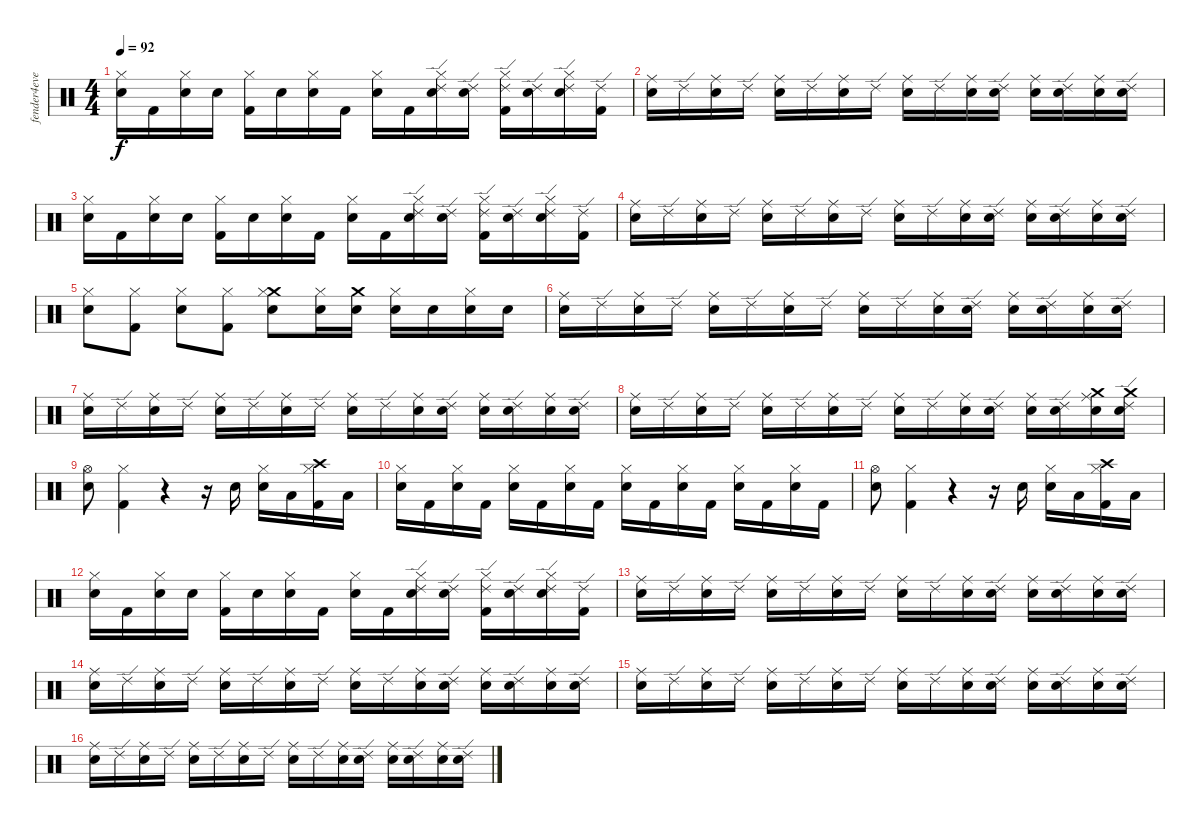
\track ("fender4ever@hotmail.com" "fender4eve") {instrument percussion}
\staff {score}
\articulation defaults
\ts (4 4)
\tempo 92
\clef neutral
\ks c
("Electric Snare (hit)" "Hi-Hat (closed)").16{dy f} "Kick (hit) 2".16 ("Electric Snare (hit)" "Hi-Hat (closed)").16 "Electric Snare (hit)".16 ("Kick (hit) 2" "Hi-Hat (closed)").16 "Electric Snare (hit)".16 ("Electric Snare (hit)" "Hi-Hat (closed)").16 "Kick (hit) 2".16 ("Electric Snare (hit)" "Hi-Hat (closed)").16 "Kick (hit) 2".16 ("Electric Snare (hit)" "Ride (edge) 2" "Hi-Hat (closed)").16 ("Electric Snare (hit)" "Ride (edge) 2").16 ("Kick (hit) 2" "Ride (edge) 2" "Hi-Hat (closed)").16 ("Electric Snare (hit)" "Ride (edge) 2").16 ("Electric Snare (hit)" "Ride (edge) 2" "Hi-Hat (closed)").16 ("Kick (hit) 2" "Ride (edge) 2").16 |
("Electric Snare (hit)" "Ride (middle)").16 "Ride (edge) 2".16 ("Electric Snare (hit)" "Ride (middle)").16 "Ride (edge) 2".16 ("Electric Snare (hit)" "Ride (middle)").16 "Ride (edge) 2".16 ("Electric Snare (hit)" "Ride (middle)").16 "Ride (edge) 2".16 ("Electric Snare (hit)" "Ride (middle)").16 "Ride (edge) 2".16 ("Electric Snare (hit)" "Ride (middle)").16 ("Electric Snare (hit)" "Ride (edge) 2").16 ("Electric Snare (hit)" "Ride (middle)").16 ("Electric Snare (hit)" "Ride (edge) 2").16 ("Electric Snare (hit)" "Ride (middle)").16 ("Electric Snare (hit)" "Ride (edge) 2").16 |
("Electric Snare (hit)" "Hi-Hat (closed)").16 "Kick (hit) 2".16 ("Electric Snare (hit)" "Hi-Hat (closed)").16 "Electric Snare (hit)".16 ("Kick (hit) 2" "Hi-Hat (closed)").16 "Electric Snare (hit)".16 ("Electric Snare (hit)" "Hi-Hat (closed)").16 "Kick (hit) 2".16 ("Electric Snare (hit)" "Hi-Hat (closed)").16 "Kick (hit) 2".16 ("Electric Snare (hit)" "Ride (edge) 2" "Hi-Hat (closed)").16 ("Electric Snare (hit)" "Ride (edge) 2").16 ("Kick (hit) 2" "Ride (edge) 2" "Hi-Hat (closed)").16 ("Electric Snare (hit)" "Ride (edge) 2").16 ("Electric Snare (hit)" "Ride (edge) 2" "Hi-Hat (closed)").16 ("Kick (hit) 2" "Ride (edge) 2").16 |
("Electric Snare (hit)" "Ride (middle)").16 "Ride (edge) 2".16 ("Electric Snare (hit)" "Ride (middle)").16 "Ride (edge) 2".16 ("Electric Snare (hit)" "Ride (middle)").16 "Ride (edge) 2".16 ("Electric Snare (hit)" "Ride (middle)").16 "Ride (edge) 2".16 ("Electric Snare (hit)" "Ride (middle)").16 "Ride (edge) 2".16 ("Electric Snare (hit)" "Ride (middle)").16 ("Electric Snare (hit)" "Ride (edge) 2").16 ("Electric Snare (hit)" "Ride (middle)").16 ("Electric Snare (hit)" "Ride (edge) 2").16 ("Electric Snare (hit)" "Ride (middle)").16 ("Electric Snare (hit)" "Ride (edge) 2").16 |
("Electric Snare (hit)" "Hi-Hat (closed)").8 ("Kick (hit) 2" "Hi-Hat (closed)").8 ("Electric Snare (hit)" "Hi-Hat (closed)").8 ("Kick (hit) 2" "Hi-Hat (closed)").8 ("Electric Snare (hit)" "Crash medium (hit)" "Hi-Hat (closed)").8 ("Electric Snare (hit)" "Hi-Hat (closed)").16 ("Electric Snare (hit)" "Crash medium (hit)").16 ("Electric Snare (hit)" "Hi-Hat (closed)").16 "Electric Snare (hit)".16 ("Electric Snare (hit)" "Hi-Hat (closed)").16 "Electric Snare (hit)".16 |
("Electric Snare (hit)" "Ride (middle)").16 "Ride (edge) 2".16 ("Electric Snare (hit)" "Ride (middle)").16 "Ride (edge) 2".16 ("Electric Snare (hit)" "Ride (middle)").16 "Ride (edge) 2".16 ("Electric Snare (hit)" "Ride (middle)").16 "Ride (edge) 2".16 ("Electric Snare (hit)" "Ride (middle)").16 "Ride (edge) 2".16 ("Electric Snare (hit)" "Ride (middle)").16 ("Electric Snare (hit)" "Ride (edge) 2").16 ("Electric Snare (hit)" "Ride (middle)").16 ("Electric Snare (hit)" "Ride (edge) 2").16 ("Electric Snare (hit)" "Ride (middle)").16 ("Electric Snare (hit)" "Ride (edge) 2").16 |
("Electric Snare (hit)" "Ride (middle)").16 "Ride (edge) 2".16 ("Electric Snare (hit)" "Ride (middle)").16 "Ride (edge) 2".16 ("Electric Snare (hit)" "Ride (middle)").16 "Ride (edge) 2".16 ("Electric Snare (hit)" "Ride (middle)").16 "Ride (edge) 2".16 ("Electric Snare (hit)" "Ride (middle)").16 "Ride (edge) 2".16 ("Electric Snare (hit)" "Ride (middle)").16 ("Electric Snare (hit)" "Ride (edge) 2").16 ("Electric Snare (hit)" "Ride (middle)").16 ("Electric Snare (hit)" "Ride (edge) 2").16 ("Electric Snare (hit)" "Ride (middle)").16 ("Electric Snare (hit)" "Ride (edge) 2").16 |
("Electric Snare (hit)" "Ride (middle)").16 "Ride (edge) 2".16 ("Electric Snare (hit)" "Ride (middle)").16 "Ride (edge) 2".16 ("Electric Snare (hit)" "Ride (middle)").16 "Ride (edge) 2".16 ("Electric Snare (hit)" "Ride (middle)").16 "Ride (edge) 2".16 ("Electric Snare (hit)" "Ride (middle)").16 "Ride (edge) 2".16 ("Electric Snare (hit)" "Ride (middle)").16 ("Electric Snare (hit)" "Ride (edge) 2").16 ("Electric Snare (hit)" "Ride (middle)").16 ("Electric Snare (hit)" "Ride (edge) 2").16 ("Electric Snare (hit)" "Ride (middle)" "Crash medium (hit)").16 ("Electric Snare (hit)" "Ride (edge) 2" "Crash medium (hit)").16 |
("Electric Snare (hit)" "Hi-Hat (open)").8 ("Kick (hit) 2" "Hi-Hat (closed)").4 r.4 r.16 "Electric Snare (hit)".16 ("Electric Snare (hit)" "Hi-Hat (closed)").16 "Low Floor Tom (hit)".16 ("Kick (hit) 2" "Crash high (hit)" "Hi-Hat (closed)").16 "Low Floor Tom (hit)".16 |
("Electric Snare (hit)" "Hi-Hat (closed)").16 "Kick (hit) 2".16 ("Electric Snare (hit)" "Hi-Hat (closed)").16 "Kick (hit) 2".16 ("Electric Snare (hit)" "Hi-Hat (closed)").16 "Kick (hit) 2".16 ("Electric Snare (hit)" "Hi-Hat (closed)").16 "Kick (hit) 2".16 ("Electric Snare (hit)" "Hi-Hat (closed)").16 "Kick (hit) 2".16 ("Electric Snare (hit)" "Hi-Hat (closed)").16 "Kick (hit) 2".16 ("Electric Snare (hit)" "Hi-Hat (closed)").16 "Kick (hit) 2".16 ("Electric Snare (hit)" "Hi-Hat (closed)").16 "Kick (hit) 2".16 |
("Electric Snare (hit)" "Hi-Hat (open)").8 ("Kick (hit) 2" "Hi-Hat (closed)").4 r.4 r.16 "Electric Snare (hit)".16 ("Electric Snare (hit)" "Hi-Hat (closed)").16 "Low Floor Tom (hit)".16 ("Kick (hit) 2" "Crash high (hit)" "Hi-Hat (closed)").16 "Low Floor Tom (hit)".16 |
("Electric Snare (hit)" "Hi-Hat (closed)").16 "Kick (hit) 2".16 ("Electric Snare (hit)" "Hi-Hat (closed)").16 "Electric Snare (hit)".16 ("Kick (hit) 2" "Hi-Hat (closed)").16 "Electric Snare (hit)".16 ("Electric Snare (hit)" "Hi-Hat (closed)").16 "Kick (hit) 2".16 ("Electric Snare (hit)" "Hi-Hat (closed)").16 "Kick (hit) 2".16 ("Electric Snare (hit)" "Ride (edge) 2" "Hi-Hat (closed)").16 ("Electric Snare (hit)" "Ride (edge) 2").16 ("Kick (hit) 2" "Ride (edge) 2" "Hi-Hat (closed)").16 ("Electric Snare (hit)" "Ride (edge) 2").16 ("Electric Snare (hit)" "Ride (edge) 2" "Hi-Hat (closed)").16 ("Kick (hit) 2" "Ride (edge) 2").16 |
("Electric Snare (hit)" "Ride (middle)").16 "Ride (edge) 2".16 ("Electric Snare (hit)" "Ride (middle)").16 "Ride (edge) 2".16 ("Electric Snare (hit)" "Ride (middle)").16 "Ride (edge) 2".16 ("Electric Snare (hit)" "Ride (middle)").16 "Ride (edge) 2".16 ("Electric Snare (hit)" "Ride (middle)").16 "Ride (edge) 2".16 ("Electric Snare (hit)" "Ride (middle)").16 ("Electric Snare (hit)" "Ride (edge) 2").16 ("Electric Snare (hit)" "Ride (middle)").16 ("Electric Snare (hit)" "Ride (edge) 2").16 ("Electric Snare (hit)" "Ride (middle)").16 ("Electric Snare (hit)" "Ride (edge) 2").16 |
("Electric Snare (hit)" "Ride (middle)").16 "Ride (edge) 2".16 ("Electric Snare (hit)" "Ride (middle)").16 "Ride (edge) 2".16 ("Electric Snare (hit)" "Ride (middle)").16 "Ride (edge) 2".16 ("Electric Snare (hit)" "Ride (middle)").16 "Ride (edge) 2".16 ("Electric Snare (hit)" "Ride (middle)").16 "Ride (edge) 2".16 ("Electric Snare (hit)" "Ride (middle)").16 ("Electric Snare (hit)" "Ride (edge) 2").16 ("Electric Snare (hit)" "Ride (middle)").16 ("Electric Snare (hit)" "Ride (edge) 2").16 ("Electric Snare (hit)" "Ride (middle)").16 ("Electric Snare (hit)" "Ride (edge) 2").16 |
("Electric Snare (hit)" "Ride (middle)").16 "Ride (edge) 2".16 ("Electric Snare (hit)" "Ride (middle)").16 "Ride (edge) 2".16 ("Electric Snare (hit)" "Ride (middle)").16 "Ride (edge) 2".16 ("Electric Snare (hit)" "Ride (middle)").16 "Ride (edge) 2".16 ("Electric Snare (hit)" "Ride (middle)").16 "Ride (edge) 2".16 ("Electric Snare (hit)" "Ride (middle)").16 ("Electric Snare (hit)" "Ride (edge) 2").16 ("Electric Snare (hit)" "Ride (middle)").16 ("Electric Snare (hit)" "Ride (edge) 2").16 ("Electric Snare (hit)" "Ride (middle)").16 ("Electric Snare (hit)" "Ride (edge) 2").16 |
("Electric Snare (hit)" "Ride (middle)").16 "Ride (edge) 2".16 ("Electric Snare (hit)" "Ride (middle)").16 "Ride (edge) 2".16 ("Electric Snare (hit)" "Ride (middle)").16 "Ride (edge) 2".16 ("Electric Snare (hit)" "Ride (middle)").16 "Ride (edge) 2".16 ("Electric Snare (hit)" "Ride (middle)").16 "Ride (edge) 2".16 ("Electric Snare (hit)" "Ride (middle)").16 ("Electric Snare (hit)" "Ride (edge) 2").16 ("Electric Snare (hit)" "Ride (middle)").16 ("Electric Snare (hit)" "Ride (edge) 2").16 ("Electric Snare (hit)" "Ride (middle)").16 ("Electric Snare (hit)" "Ride (edge) 2").16
